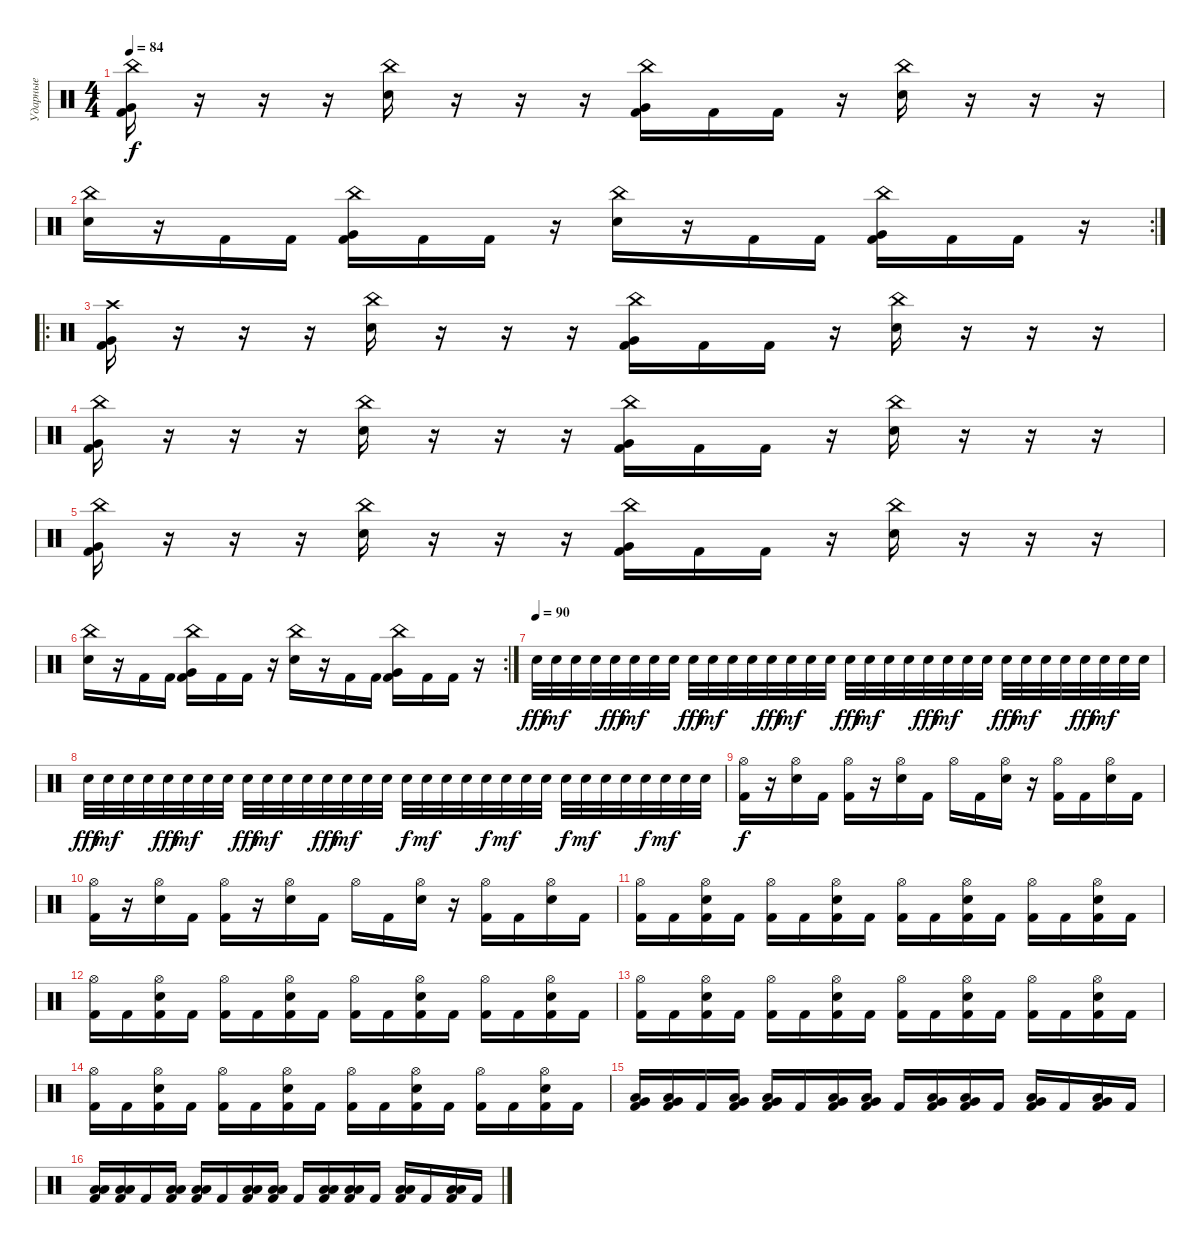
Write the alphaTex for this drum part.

\track ("Ударные" "Ударные") {instrument percussion}
\staff {score}
\articulation defaults
\ts (4 4)
\tempo 84
\clef neutral
\ks c
("China (hit)" "Very Low Tom (hit)" "Kick (hit) 2").16{dy f} r.16 r.16 r.16 ("China (hit)" "Snare (hit) 2").16 r.16 r.16 r.16 ("China (hit)" "Very Low Tom (hit)" "Kick (hit) 2").16 "Kick (hit) 2".16 "Kick (hit) 2".16 r.16 ("China (hit)" "Snare (hit) 2").16 r.16 r.16 r.16 |
\rc 2
("China (hit)" "Snare (hit) 2").16 r.16 "Kick (hit) 2".16 "Kick (hit) 2".16 ("China (hit)" "Very Low Tom (hit)" "Kick (hit) 2").16 "Kick (hit) 2".16 "Kick (hit) 2".16 r.16 ("China (hit)" "Snare (hit) 2").16 r.16 "Kick (hit) 2".16 "Kick (hit) 2".16 ("China (hit)" "Very Low Tom (hit)" "Kick (hit) 2").16 "Kick (hit) 2".16 "Kick (hit) 2".16 r.16 |
\ro
("Crash high (hit)" "Very Low Tom (hit)" "Kick (hit) 2").16 r.16 r.16 r.16 ("China (hit)" "Snare (hit) 2").16 r.16 r.16 r.16 ("China (hit)" "Very Low Tom (hit)" "Kick (hit) 2").16 "Kick (hit) 2".16 "Kick (hit) 2".16 r.16 ("China (hit)" "Snare (hit) 2").16 r.16 r.16 r.16 |
("China (hit)" "Very Low Tom (hit)" "Kick (hit) 2").16 r.16 r.16 r.16 ("China (hit)" "Snare (hit) 2").16 r.16 r.16 r.16 ("China (hit)" "Very Low Tom (hit)" "Kick (hit) 2").16 "Kick (hit) 2".16 "Kick (hit) 2".16 r.16 ("China (hit)" "Snare (hit) 2").16 r.16 r.16 r.16 |
("China (hit)" "Very Low Tom (hit)" "Kick (hit) 2").16 r.16 r.16 r.16 ("China (hit)" "Snare (hit) 2").16 r.16 r.16 r.16 ("China (hit)" "Very Low Tom (hit)" "Kick (hit) 2").16 "Kick (hit) 2".16 "Kick (hit) 2".16 r.16 ("China (hit)" "Snare (hit) 2").16 r.16 r.16 r.16 |
\rc 2
("China (hit)" "Snare (hit) 2").16 r.16 "Kick (hit) 2".16 "Kick (hit) 2".16 ("China (hit)" "Very Low Tom (hit)" "Kick (hit) 2").16 "Kick (hit) 2".16 "Kick (hit) 2".16 r.16 ("China (hit)" "Snare (hit) 2").16 r.16 "Kick (hit) 2".16 "Kick (hit) 2".16 ("China (hit)" "Very Low Tom (hit)" "Kick (hit) 2").16 "Kick (hit) 2".16 "Kick (hit) 2".16 r.16 |
\tempo (90)
"Snare (hit) 2".32{dy fff volume 1} "Snare (hit) 2".32{dy mf volume 13} "Snare (hit) 2".32 "Snare (hit) 2".32 "Snare (hit) 2".32{dy fff} "Snare (hit) 2".32{dy mf} "Snare (hit) 2".32 "Snare (hit) 2".32 "Snare (hit) 2".32{dy fff} "Snare (hit) 2".32{dy mf} "Snare (hit) 2".32 "Snare (hit) 2".32 "Snare (hit) 2".32{dy fff} "Snare (hit) 2".32{dy mf} "Snare (hit) 2".32 "Snare (hit) 2".32 "Snare (hit) 2".32{dy fff} "Snare (hit) 2".32{dy mf} "Snare (hit) 2".32 "Snare (hit) 2".32 "Snare (hit) 2".32{dy fff} "Snare (hit) 2".32{dy mf} "Snare (hit) 2".32 "Snare (hit) 2".32 "Snare (hit) 2".32{dy fff} "Snare (hit) 2".32{dy mf} "Snare (hit) 2".32 "Snare (hit) 2".32 "Snare (hit) 2".32{dy fff} "Snare (hit) 2".32{dy mf} "Snare (hit) 2".32 "Snare (hit) 2".32 |
"Snare (hit) 2".32{dy fff} "Snare (hit) 2".32{dy mf} "Snare (hit) 2".32 "Snare (hit) 2".32 "Snare (hit) 2".32{dy fff} "Snare (hit) 2".32{dy mf} "Snare (hit) 2".32 "Snare (hit) 2".32 "Snare (hit) 2".32{dy fff} "Snare (hit) 2".32{dy mf} "Snare (hit) 2".32 "Snare (hit) 2".32 "Snare (hit) 2".32{dy fff} "Snare (hit) 2".32{dy mf} "Snare (hit) 2".32 "Snare (hit) 2".32 "Snare (hit) 2".32{dy f} "Snare (hit) 2".32{dy mf} "Snare (hit) 2".32 "Snare (hit) 2".32 "Snare (hit) 2".32{dy f} "Snare (hit) 2".32{dy mf} "Snare (hit) 2".32 "Snare (hit) 2".32 "Snare (hit) 2".32{dy f} "Snare (hit) 2".32{dy mf} "Snare (hit) 2".32 "Snare (hit) 2".32 "Snare (hit) 2".32{dy f} "Snare (hit) 2".32{dy mf} "Snare (hit) 2".32 "Snare (hit) 2".32 |
("Hi-Hat (open)" "Kick (hit) 2").16{dy f} r.16 ("Hi-Hat (open)" "Snare (hit) 2").16 "Kick (hit) 2".16 ("Hi-Hat (open)" "Kick (hit) 2").16 r.16 ("Hi-Hat (open)" "Snare (hit) 2").16 "Kick (hit) 2".16 "Hi-Hat (open)".16 "Kick (hit) 2".16 ("Hi-Hat (open)" "Snare (hit) 2").16 r.16 ("Hi-Hat (open)" "Kick (hit) 2").16 "Kick (hit) 2".16 ("Hi-Hat (open)" "Snare (hit) 2").16 "Kick (hit) 2".16 |
("Hi-Hat (open)" "Kick (hit) 2").16 r.16 ("Hi-Hat (open)" "Snare (hit) 2").16 "Kick (hit) 2".16 ("Hi-Hat (open)" "Kick (hit) 2").16 r.16 ("Hi-Hat (open)" "Snare (hit) 2").16 "Kick (hit) 2".16 "Hi-Hat (open)".16 "Kick (hit) 2".16 ("Hi-Hat (open)" "Snare (hit) 2").16 r.16 ("Hi-Hat (open)" "Kick (hit) 2").16 "Kick (hit) 2".16 ("Hi-Hat (open)" "Snare (hit) 2").16 "Kick (hit) 2".16 |
("Hi-Hat (open)" "Kick (hit) 2").16 "Kick (hit) 2".16 ("Hi-Hat (open)" "Snare (hit) 2" "Kick (hit) 2").16 "Kick (hit) 2".16 ("Hi-Hat (open)" "Kick (hit) 2").16 "Kick (hit) 2".16 ("Hi-Hat (open)" "Snare (hit) 2" "Kick (hit) 2").16 "Kick (hit) 2".16 ("Hi-Hat (open)" "Kick (hit) 2").16 "Kick (hit) 2".16 ("Hi-Hat (open)" "Snare (hit) 2" "Kick (hit) 2").16 "Kick (hit) 2".16 ("Hi-Hat (open)" "Kick (hit) 2").16 "Kick (hit) 2".16 ("Hi-Hat (open)" "Snare (hit) 2" "Kick (hit) 2").16 "Kick (hit) 2".16 |
("Hi-Hat (open)" "Kick (hit) 2").16 "Kick (hit) 2".16 ("Hi-Hat (open)" "Snare (hit) 2" "Kick (hit) 2").16 "Kick (hit) 2".16 ("Hi-Hat (open)" "Kick (hit) 2").16 "Kick (hit) 2".16 ("Hi-Hat (open)" "Snare (hit) 2" "Kick (hit) 2").16 "Kick (hit) 2".16 ("Hi-Hat (open)" "Kick (hit) 2").16 "Kick (hit) 2".16 ("Hi-Hat (open)" "Snare (hit) 2" "Kick (hit) 2").16 "Kick (hit) 2".16 ("Hi-Hat (open)" "Kick (hit) 2").16 "Kick (hit) 2".16 ("Hi-Hat (open)" "Snare (hit) 2" "Kick (hit) 2").16 "Kick (hit) 2".16 |
("Hi-Hat (open)" "Kick (hit) 2").16 "Kick (hit) 2".16 ("Hi-Hat (open)" "Snare (hit) 2" "Kick (hit) 2").16 "Kick (hit) 2".16 ("Hi-Hat (open)" "Kick (hit) 2").16 "Kick (hit) 2".16 ("Hi-Hat (open)" "Snare (hit) 2" "Kick (hit) 2").16 "Kick (hit) 2".16 ("Hi-Hat (open)" "Kick (hit) 2").16 "Kick (hit) 2".16 ("Hi-Hat (open)" "Snare (hit) 2" "Kick (hit) 2").16 "Kick (hit) 2".16 ("Hi-Hat (open)" "Kick (hit) 2").16 "Kick (hit) 2".16 ("Hi-Hat (open)" "Snare (hit) 2" "Kick (hit) 2").16 "Kick (hit) 2".16 |
("Hi-Hat (open)" "Kick (hit) 2").16 "Kick (hit) 2".16 ("Hi-Hat (open)" "Snare (hit) 2" "Kick (hit) 2").16 "Kick (hit) 2".16 ("Hi-Hat (open)" "Kick (hit) 2").16 "Kick (hit) 2".16 ("Hi-Hat (open)" "Snare (hit) 2" "Kick (hit) 2").16 "Kick (hit) 2".16 ("Hi-Hat (open)" "Kick (hit) 2").16 "Kick (hit) 2".16 ("Hi-Hat (open)" "Snare (hit) 2" "Kick (hit) 2").16 "Kick (hit) 2".16 ("Hi-Hat (open)" "Kick (hit) 2").16 "Kick (hit) 2".16 ("Hi-Hat (open)" "Snare (hit) 2" "Kick (hit) 2").16 "Kick (hit) 2".16 |
("Low Tom (hit)" "Very Low Tom (hit)" "Kick (hit) 2").16 ("Low Tom (hit)" "Very Low Tom (hit)" "Kick (hit) 2").16 "Kick (hit) 2".16 ("Low Tom (hit)" "Very Low Tom (hit)" "Kick (hit) 2").16 ("Low Tom (hit)" "Very Low Tom (hit)" "Kick (hit) 2").16 "Kick (hit) 2".16 ("Low Tom (hit)" "Very Low Tom (hit)" "Kick (hit) 2").16 ("Low Tom (hit)" "Very Low Tom (hit)" "Kick (hit) 2").16 "Kick (hit) 2".16 ("Low Tom (hit)" "Very Low Tom (hit)" "Kick (hit) 2").16 ("Low Tom (hit)" "Very Low Tom (hit)" "Kick (hit) 2").16 "Kick (hit) 2".16 ("Low Tom (hit)" "Very Low Tom (hit)" "Kick (hit) 2").16 "Kick (hit) 2".16 ("Low Tom (hit)" "Very Low Tom (hit)" "Kick (hit) 2").16 "Kick (hit) 2".16 |
("Low Tom (hit)" "Low Floor Tom (hit)" "Kick (hit) 2").16 ("Low Tom (hit)" "Low Floor Tom (hit)" "Kick (hit) 2").16 "Kick (hit) 2".16 ("Low Tom (hit)" "Low Floor Tom (hit)" "Kick (hit) 2").16 ("Low Tom (hit)" "Low Floor Tom (hit)" "Kick (hit) 2").16 "Kick (hit) 2".16 ("Low Tom (hit)" "Low Floor Tom (hit)" "Kick (hit) 2").16 ("Low Tom (hit)" "Low Floor Tom (hit)" "Kick (hit) 2").16 "Kick (hit) 2".16 ("Low Tom (hit)" "Low Floor Tom (hit)" "Kick (hit) 2").16 ("Low Tom (hit)" "Low Floor Tom (hit)" "Kick (hit) 2").16 "Kick (hit) 2".16 ("Low Tom (hit)" "Low Floor Tom (hit)" "Kick (hit) 2").16 "Kick (hit) 2".16 ("Low Tom (hit)" "Low Floor Tom (hit)" "Kick (hit) 2").16 "Kick (hit) 2".16
